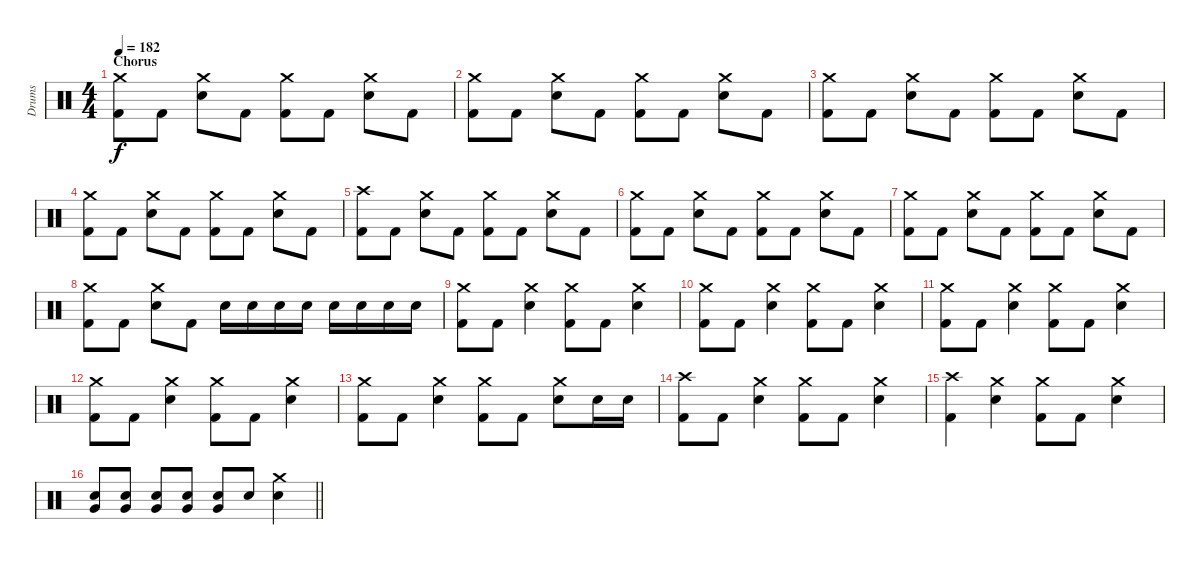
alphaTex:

\track ("Drums" "Drums") {instrument percussion}
\staff {score}
\articulation defaults
\ts (4 4)
\section ("" "Chorus")
\tempo 182
\clef neutral
\ks c
("Crash medium (hit)" "Kick (hit) 2").8{dy f} "Kick (hit) 2".8 ("Crash medium (hit)" "Electric Snare (hit)").8 "Kick (hit) 2".8 ("Crash medium (hit)" "Kick (hit) 2").8 "Kick (hit) 2".8 ("Crash medium (hit)" "Electric Snare (hit)").8 "Kick (hit) 2".8 |
("Crash medium (hit)" "Kick (hit) 2").8 "Kick (hit) 2".8 ("Crash medium (hit)" "Electric Snare (hit)").8 "Kick (hit) 2".8 ("Crash medium (hit)" "Kick (hit) 2").8 "Kick (hit) 2".8 ("Crash medium (hit)" "Electric Snare (hit)").8 "Kick (hit) 2".8 |
("Crash medium (hit)" "Kick (hit) 2").8 "Kick (hit) 2".8 ("Crash medium (hit)" "Electric Snare (hit)").8 "Kick (hit) 2".8 ("Crash medium (hit)" "Kick (hit) 2").8 "Kick (hit) 2".8 ("Crash medium (hit)" "Electric Snare (hit)").8 "Kick (hit) 2".8 |
("Crash medium (hit)" "Kick (hit) 2").8 "Kick (hit) 2".8 ("Crash medium (hit)" "Electric Snare (hit)").8 "Kick (hit) 2".8 ("Crash medium (hit)" "Kick (hit) 2").8 "Kick (hit) 2".8 ("Crash medium (hit)" "Electric Snare (hit)").8 "Kick (hit) 2".8 |
("Crash high (hit)" "Kick (hit) 2").8 "Kick (hit) 2".8 ("Crash medium (hit)" "Electric Snare (hit)").8 "Kick (hit) 2".8 ("Crash medium (hit)" "Kick (hit) 2").8 "Kick (hit) 2".8 ("Crash medium (hit)" "Electric Snare (hit)").8 "Kick (hit) 2".8 |
("Crash medium (hit)" "Kick (hit) 2").8 "Kick (hit) 2".8 ("Crash medium (hit)" "Electric Snare (hit)").8 "Kick (hit) 2".8 ("Crash medium (hit)" "Kick (hit) 2").8 "Kick (hit) 2".8 ("Crash medium (hit)" "Electric Snare (hit)").8 "Kick (hit) 2".8 |
("Crash medium (hit)" "Kick (hit) 2").8 "Kick (hit) 2".8 ("Crash medium (hit)" "Electric Snare (hit)").8 "Kick (hit) 2".8 ("Crash medium (hit)" "Kick (hit) 2").8 "Kick (hit) 2".8 ("Crash medium (hit)" "Electric Snare (hit)").8 "Kick (hit) 2".8 |
("Crash medium (hit)" "Kick (hit) 2").8 "Kick (hit) 2".8 ("Crash medium (hit)" "Electric Snare (hit)").8 "Kick (hit) 2".8 "Electric Snare (hit)".16 "Electric Snare (hit)".16 "Electric Snare (hit)".16 "Electric Snare (hit)".16 "Electric Snare (hit)".16 "Electric Snare (hit)".16 "Electric Snare (hit)".16 "Electric Snare (hit)".16 |
("Crash medium (hit)" "Kick (hit) 2").8 "Kick (hit) 2".8 ("Crash medium (hit)" "Electric Snare (hit)").4 ("Crash medium (hit)" "Kick (hit) 2").8 "Kick (hit) 2".8 ("Crash medium (hit)" "Electric Snare (hit)").4 |
("Crash medium (hit)" "Kick (hit) 2").8 "Kick (hit) 2".8 ("Crash medium (hit)" "Electric Snare (hit)").4 ("Crash medium (hit)" "Kick (hit) 2").8 "Kick (hit) 2".8 ("Crash medium (hit)" "Electric Snare (hit)").4 |
("Crash medium (hit)" "Kick (hit) 2").8 "Kick (hit) 2".8 ("Crash medium (hit)" "Electric Snare (hit)").4 ("Crash medium (hit)" "Kick (hit) 2").8 "Kick (hit) 2".8 ("Crash medium (hit)" "Electric Snare (hit)").4 |
("Crash medium (hit)" "Kick (hit) 2").8 "Kick (hit) 2".8 ("Crash medium (hit)" "Electric Snare (hit)").4 ("Crash medium (hit)" "Kick (hit) 2").8 "Kick (hit) 2".8 ("Crash medium (hit)" "Electric Snare (hit)").4 |
("Crash medium (hit)" "Kick (hit) 2").8 "Kick (hit) 2".8 ("Crash medium (hit)" "Electric Snare (hit)").4 ("Crash medium (hit)" "Kick (hit) 2").8 "Kick (hit) 2".8 ("Crash medium (hit)" "Electric Snare (hit)").8 "Electric Snare (hit)".16 "Electric Snare (hit)".16 |
("Crash high (hit)" "Kick (hit) 2").8 "Kick (hit) 2".8 ("Crash medium (hit)" "Electric Snare (hit)").4 ("Crash medium (hit)" "Kick (hit) 2").8 "Kick (hit) 2".8 ("Crash medium (hit)" "Electric Snare (hit)").4 |
("Crash high (hit)" "Kick (hit) 2").4 ("Crash medium (hit)" "Electric Snare (hit)").4 ("Crash medium (hit)" "Kick (hit) 2").8 "Kick (hit) 2".8 ("Crash medium (hit)" "Electric Snare (hit)").4 |
\barLineRight lightlight
("Very Low Tom (hit)" "Electric Snare (hit)").8 ("Very Low Tom (hit)" "Electric Snare (hit)").8 ("Very Low Tom (hit)" "Electric Snare (hit)").8 ("Very Low Tom (hit)" "Electric Snare (hit)").8 ("Very Low Tom (hit)" "Electric Snare (hit)").8 "Electric Snare (hit)".8 ("Crash medium (hit)" "Electric Snare (hit)").4
